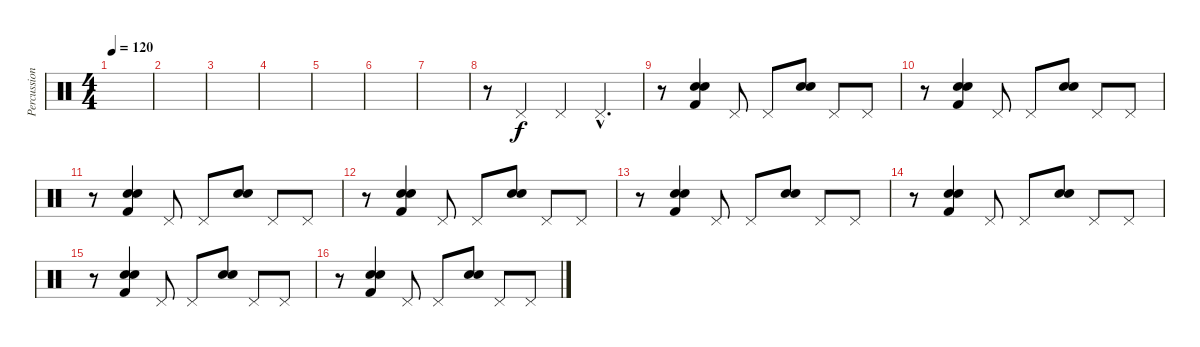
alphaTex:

\track ("Percussions" "Percussion") {instrument percussion}
\staff {score}
\articulation defaults
\ts (4 4)
\tempo 120
\clef neutral
\ks c
|
|
|
|
|
|
|
r.8 "Pedal Hi-Hat (hit)".4 "Pedal Hi-Hat (hit)".4 "Pedal Hi-Hat (hit)"{hac}.4{d} |
r.8 ("Kick (hit) 2" "Snare (hit) 2" "Snare (hit) 2").4 "Pedal Hi-Hat (hit)".8 "Pedal Hi-Hat (hit)".8 ("Snare (hit) 2" "Snare (hit) 2").8 "Pedal Hi-Hat (hit)".8 "Pedal Hi-Hat (hit)".8 |
r.8 ("Kick (hit) 2" "Snare (hit) 2" "Snare (hit) 2").4 "Pedal Hi-Hat (hit)".8 "Pedal Hi-Hat (hit)".8 ("Snare (hit) 2" "Snare (hit) 2").8 "Pedal Hi-Hat (hit)".8 "Pedal Hi-Hat (hit)".8 |
r.8 ("Kick (hit) 2" "Snare (hit) 2" "Snare (hit) 2").4 "Pedal Hi-Hat (hit)".8 "Pedal Hi-Hat (hit)".8 ("Snare (hit) 2" "Snare (hit) 2").8 "Pedal Hi-Hat (hit)".8 "Pedal Hi-Hat (hit)".8 |
r.8 ("Kick (hit) 2" "Snare (hit) 2" "Snare (hit) 2").4 "Pedal Hi-Hat (hit)".8 "Pedal Hi-Hat (hit)".8 ("Snare (hit) 2" "Snare (hit) 2").8 "Pedal Hi-Hat (hit)".8 "Pedal Hi-Hat (hit)".8 |
r.8 ("Kick (hit) 2" "Snare (hit) 2" "Snare (hit) 2").4 "Pedal Hi-Hat (hit)".8 "Pedal Hi-Hat (hit)".8 ("Snare (hit) 2" "Snare (hit) 2").8 "Pedal Hi-Hat (hit)".8 "Pedal Hi-Hat (hit)".8 |
r.8 ("Kick (hit) 2" "Snare (hit) 2" "Snare (hit) 2").4 "Pedal Hi-Hat (hit)".8 "Pedal Hi-Hat (hit)".8 ("Snare (hit) 2" "Snare (hit) 2").8 "Pedal Hi-Hat (hit)".8 "Pedal Hi-Hat (hit)".8 |
r.8 ("Kick (hit) 2" "Snare (hit) 2" "Snare (hit) 2").4 "Pedal Hi-Hat (hit)".8 "Pedal Hi-Hat (hit)".8 ("Snare (hit) 2" "Snare (hit) 2").8 "Pedal Hi-Hat (hit)".8 "Pedal Hi-Hat (hit)".8 |
r.8 ("Kick (hit) 2" "Snare (hit) 2" "Snare (hit) 2").4 "Pedal Hi-Hat (hit)".8 "Pedal Hi-Hat (hit)".8 ("Snare (hit) 2" "Snare (hit) 2").8 "Pedal Hi-Hat (hit)".8 "Pedal Hi-Hat (hit)".8
